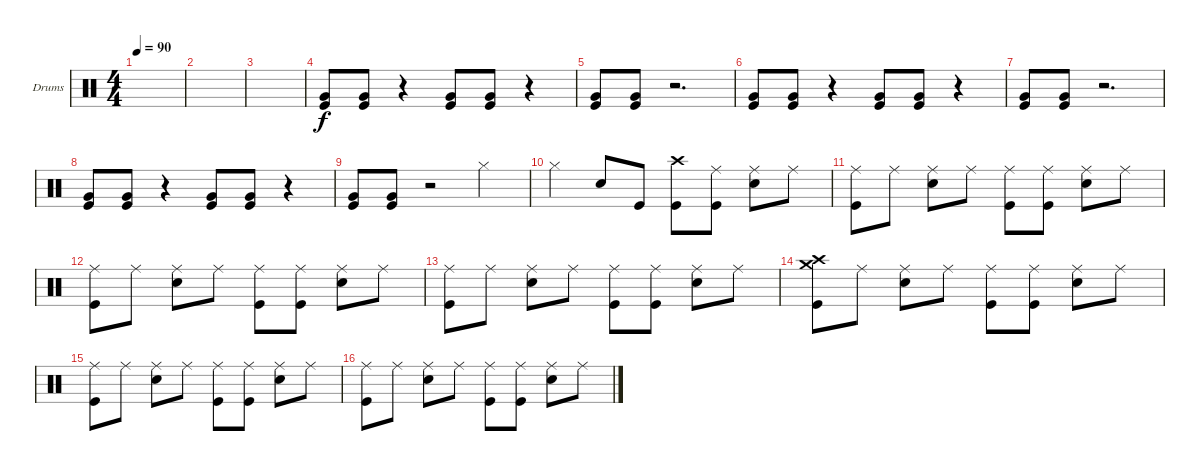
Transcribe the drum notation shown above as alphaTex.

\defaultSystemsLayout 4
\bracketExtendMode groupsimilarinstruments
\firstSystemTrackNameOrientation horizontal
\otherSystemsTrackNameOrientation horizontal
\track ("Drumkit" "Drums") {instrument percussion}
\staff {score}
\articulation defaults
\ts (4 4)
\tempo 90
\clef neutral
\scale
0.472222
\ks c
|
\scale
0.263889 |
\scale
0.263889 |
\scale
0.333333 ("Kick (hit)" "Very Low Tom (hit)").8 ("Kick (hit)" "Very Low Tom (hit)").8 r.4 ("Kick (hit)" "Very Low Tom (hit)").8 ("Kick (hit)" "Very Low Tom (hit)").8 r.4 |
\scale
0.333333 ("Kick (hit)" "Very Low Tom (hit)").8 ("Kick (hit)" "Very Low Tom (hit)").8 r.2{d} |
\scale
0.333333 ("Kick (hit)" "Very Low Tom (hit)").8 ("Kick (hit)" "Very Low Tom (hit)").8 r.4 ("Kick (hit)" "Very Low Tom (hit)").8 ("Kick (hit)" "Very Low Tom (hit)").8 r.4 |
\scale
0.333333 ("Kick (hit)" "Very Low Tom (hit)").8 ("Kick (hit)" "Very Low Tom (hit)").8 r.2{d} |
\scale
0.333333 ("Kick (hit)" "Very Low Tom (hit)").8 ("Kick (hit)" "Very Low Tom (hit)").8 r.4 ("Kick (hit)" "Very Low Tom (hit)").8 ("Kick (hit)" "Very Low Tom (hit)").8 r.4 |
\scale
0.333333 ("Kick (hit)" "Very Low Tom (hit)").8 ("Kick (hit)" "Very Low Tom (hit)").8 r.2 "Hi-Hat (closed)".4 |
\scale
0.333333 "Hi-Hat (closed)".4 "Snare (hit) 2".8 "Kick (hit)".8 ("Kick (hit)" "Crash high (hit)").8 ("Kick (hit)" "Ride (middle)").8 ("Snare (hit) 2" "Ride (middle)").8 "Ride (middle)".8 |
\scale
0.333333 ("Kick (hit)" "Ride (middle)").8 "Ride (middle)".8 ("Snare (hit) 2" "Ride (middle)").8 "Ride (middle)".8 ("Kick (hit)" "Ride (middle)").8 ("Kick (hit)" "Ride (middle)").8 ("Snare (hit) 2" "Ride (middle)").8 "Ride (middle)".8 |
\scale
0.333333 ("Kick (hit)" "Ride (middle)").8 "Ride (middle)".8 ("Snare (hit) 2" "Ride (middle)").8 "Ride (middle)".8 ("Kick (hit)" "Ride (middle)").8 ("Kick (hit)" "Ride (middle)").8 ("Snare (hit) 2" "Ride (middle)").8 "Ride (middle)".8 |
\scale
0.333333 ("Kick (hit)" "Ride (middle)").8 "Ride (middle)".8 ("Snare (hit) 2" "Ride (middle)").8 "Ride (middle)".8 ("Kick (hit)" "Ride (middle)").8 ("Kick (hit)" "Ride (middle)").8 ("Snare (hit) 2" "Ride (middle)").8 "Ride (middle)".8 |
\scale
0.333333 ("Kick (hit)" "Crash high (hit)" "Crash medium (hit)").8 "Ride (middle)".8 ("Snare (hit) 2" "Ride (middle)").8 "Ride (middle)".8 ("Kick (hit)" "Ride (middle)").8 ("Kick (hit)" "Ride (middle)").8 ("Snare (hit) 2" "Ride (middle)").8 "Ride (middle)".8 |
\scale
0.333333 ("Kick (hit)" "Ride (middle)").8 "Ride (middle)".8 ("Snare (hit) 2" "Ride (middle)").8 "Ride (middle)".8 ("Kick (hit)" "Ride (middle)").8 ("Kick (hit)" "Ride (middle)").8 ("Snare (hit) 2" "Ride (middle)").8 "Ride (middle)".8 |
\scale
0.333333 ("Kick (hit)" "Ride (middle)").8 "Ride (middle)".8 ("Snare (hit) 2" "Ride (middle)").8 "Ride (middle)".8 ("Kick (hit)" "Ride (middle)").8 ("Kick (hit)" "Ride (middle)").8 ("Snare (hit) 2" "Ride (middle)").8 "Ride (middle)".8
